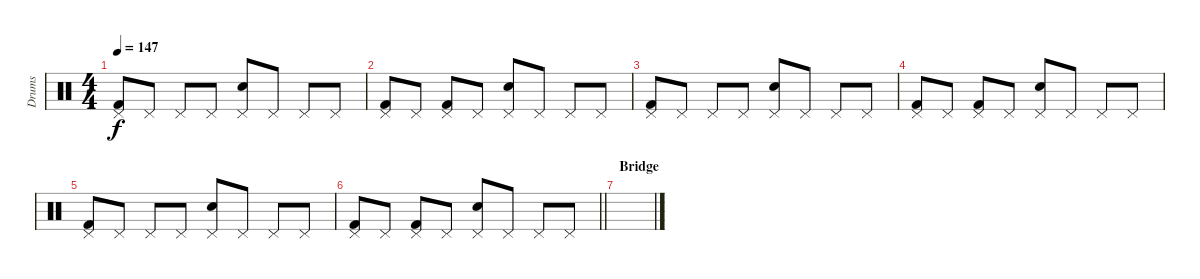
\track ("Drums" "Drums") {instrument percussion}
\staff {score}
\articulation defaults
\ts (4 4)
\tempo 147
\clef neutral
\ks c
("Kick (hit) 2" "Pedal Hi-Hat (hit)").8{dy f} "Pedal Hi-Hat (hit)".8 "Pedal Hi-Hat (hit)".8 "Pedal Hi-Hat (hit)".8 ("Electric Snare (hit)" "Pedal Hi-Hat (hit)").8 "Pedal Hi-Hat (hit)".8 "Pedal Hi-Hat (hit)".8 "Pedal Hi-Hat (hit)".8 |
("Kick (hit) 2" "Pedal Hi-Hat (hit)").8 "Pedal Hi-Hat (hit)".8 ("Kick (hit) 2" "Pedal Hi-Hat (hit)").8 "Pedal Hi-Hat (hit)".8 ("Electric Snare (hit)" "Pedal Hi-Hat (hit)").8 "Pedal Hi-Hat (hit)".8 "Pedal Hi-Hat (hit)".8 "Pedal Hi-Hat (hit)".8 |
("Kick (hit) 2" "Pedal Hi-Hat (hit)").8 "Pedal Hi-Hat (hit)".8 "Pedal Hi-Hat (hit)".8 "Pedal Hi-Hat (hit)".8 ("Electric Snare (hit)" "Pedal Hi-Hat (hit)").8 "Pedal Hi-Hat (hit)".8 "Pedal Hi-Hat (hit)".8 "Pedal Hi-Hat (hit)".8 |
("Kick (hit) 2" "Pedal Hi-Hat (hit)").8 "Pedal Hi-Hat (hit)".8 ("Kick (hit) 2" "Pedal Hi-Hat (hit)").8 "Pedal Hi-Hat (hit)".8 ("Electric Snare (hit)" "Pedal Hi-Hat (hit)").8 "Pedal Hi-Hat (hit)".8 "Pedal Hi-Hat (hit)".8 "Pedal Hi-Hat (hit)".8 |
("Kick (hit) 2" "Pedal Hi-Hat (hit)").8 "Pedal Hi-Hat (hit)".8 "Pedal Hi-Hat (hit)".8 "Pedal Hi-Hat (hit)".8 ("Electric Snare (hit)" "Pedal Hi-Hat (hit)").8 "Pedal Hi-Hat (hit)".8 "Pedal Hi-Hat (hit)".8 "Pedal Hi-Hat (hit)".8 |
\barLineRight lightlight
("Kick (hit) 2" "Pedal Hi-Hat (hit)").8 "Pedal Hi-Hat (hit)".8 ("Kick (hit) 2" "Pedal Hi-Hat (hit)").8 "Pedal Hi-Hat (hit)".8 ("Electric Snare (hit)" "Pedal Hi-Hat (hit)").8 "Pedal Hi-Hat (hit)".8 "Pedal Hi-Hat (hit)".8 "Pedal Hi-Hat (hit)".8 |
\section ("" "Bridge")
